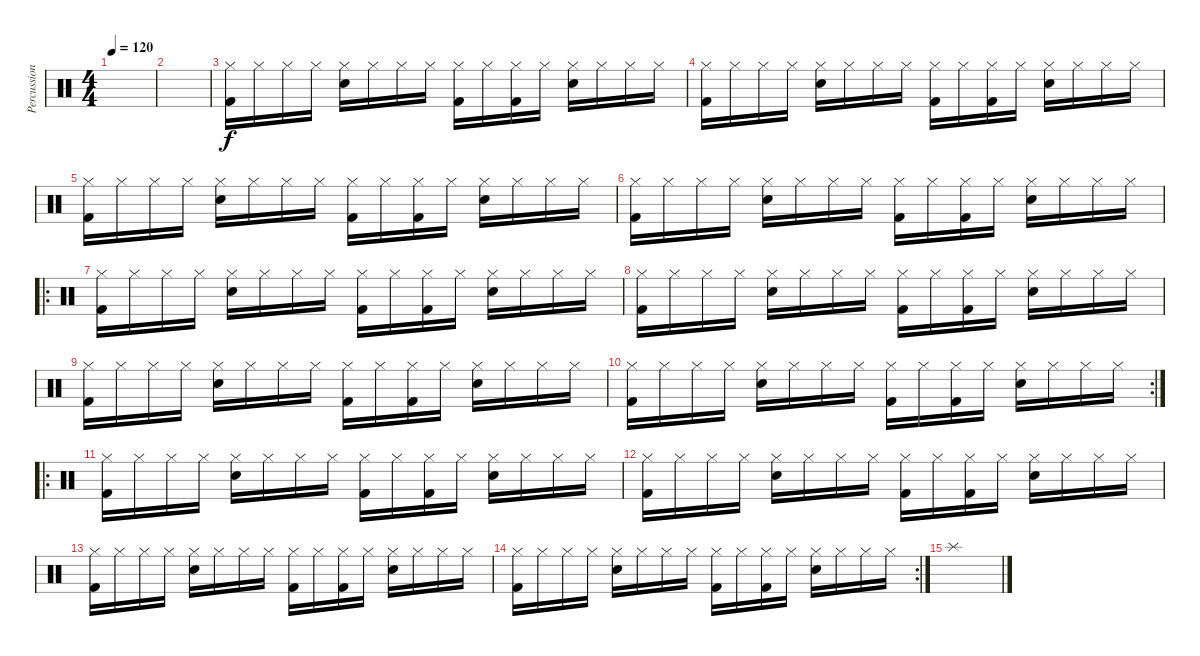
\track ("Percussion" "Percussion") {instrument percussion}
\staff {score}
\articulation defaults
\ts (4 4)
\tempo 120
\clef neutral
\ks c
|
|
("Hi-Hat (closed)" "Kick (hit) 2").16{volume 13} "Hi-Hat (closed)".16 "Hi-Hat (closed)".16 "Hi-Hat (closed)".16 ("Hi-Hat (closed)" "Snare (hit) 2").16 "Hi-Hat (closed)".16 "Hi-Hat (closed)".16 "Hi-Hat (closed)".16 ("Hi-Hat (closed)" "Kick (hit) 2").16 "Hi-Hat (closed)".16 ("Hi-Hat (closed)" "Kick (hit) 2").16 "Hi-Hat (closed)".16 ("Hi-Hat (closed)" "Snare (hit) 2").16 "Hi-Hat (closed)".16 "Hi-Hat (closed)".16 "Hi-Hat (closed)".16 |
("Hi-Hat (closed)" "Kick (hit) 2").16 "Hi-Hat (closed)".16 "Hi-Hat (closed)".16 "Hi-Hat (closed)".16 ("Hi-Hat (closed)" "Snare (hit) 2").16 "Hi-Hat (closed)".16 "Hi-Hat (closed)".16 "Hi-Hat (closed)".16 ("Hi-Hat (closed)" "Kick (hit) 2").16 "Hi-Hat (closed)".16 ("Hi-Hat (closed)" "Kick (hit) 2").16 "Hi-Hat (closed)".16 ("Hi-Hat (closed)" "Snare (hit) 2").16 "Hi-Hat (closed)".16 "Hi-Hat (closed)".16 "Hi-Hat (closed)".16 |
("Hi-Hat (closed)" "Kick (hit) 2").16 "Hi-Hat (closed)".16 "Hi-Hat (closed)".16 "Hi-Hat (closed)".16 ("Hi-Hat (closed)" "Snare (hit) 2").16 "Hi-Hat (closed)".16 "Hi-Hat (closed)".16 "Hi-Hat (closed)".16 ("Hi-Hat (closed)" "Kick (hit) 2").16 "Hi-Hat (closed)".16 ("Hi-Hat (closed)" "Kick (hit) 2").16 "Hi-Hat (closed)".16 ("Hi-Hat (closed)" "Snare (hit) 2").16 "Hi-Hat (closed)".16 "Hi-Hat (closed)".16 "Hi-Hat (closed)".16 |
("Hi-Hat (closed)" "Kick (hit) 2").16 "Hi-Hat (closed)".16 "Hi-Hat (closed)".16 "Hi-Hat (closed)".16 ("Hi-Hat (closed)" "Snare (hit) 2").16 "Hi-Hat (closed)".16 "Hi-Hat (closed)".16 "Hi-Hat (closed)".16 ("Hi-Hat (closed)" "Kick (hit) 2").16 "Hi-Hat (closed)".16 ("Hi-Hat (closed)" "Kick (hit) 2").16 "Hi-Hat (closed)".16 ("Hi-Hat (closed)" "Snare (hit) 2").16 "Hi-Hat (closed)".16 "Hi-Hat (closed)".16 "Hi-Hat (closed)".16 |
\ro
("Hi-Hat (closed)" "Kick (hit) 2").16 "Hi-Hat (closed)".16 "Hi-Hat (closed)".16 "Hi-Hat (closed)".16 ("Hi-Hat (closed)" "Snare (hit) 2").16 "Hi-Hat (closed)".16 "Hi-Hat (closed)".16 "Hi-Hat (closed)".16 ("Hi-Hat (closed)" "Kick (hit) 2").16 "Hi-Hat (closed)".16 ("Hi-Hat (closed)" "Kick (hit) 2").16 "Hi-Hat (closed)".16 ("Hi-Hat (closed)" "Snare (hit) 2").16 "Hi-Hat (closed)".16 "Hi-Hat (closed)".16 "Hi-Hat (closed)".16 |
("Hi-Hat (closed)" "Kick (hit) 2").16 "Hi-Hat (closed)".16 "Hi-Hat (closed)".16 "Hi-Hat (closed)".16 ("Hi-Hat (closed)" "Snare (hit) 2").16 "Hi-Hat (closed)".16 "Hi-Hat (closed)".16 "Hi-Hat (closed)".16 ("Hi-Hat (closed)" "Kick (hit) 2").16 "Hi-Hat (closed)".16 ("Hi-Hat (closed)" "Kick (hit) 2").16 "Hi-Hat (closed)".16 ("Hi-Hat (closed)" "Snare (hit) 2").16 "Hi-Hat (closed)".16 "Hi-Hat (closed)".16 "Hi-Hat (closed)".16 |
("Hi-Hat (closed)" "Kick (hit) 2").16 "Hi-Hat (closed)".16 "Hi-Hat (closed)".16 "Hi-Hat (closed)".16 ("Hi-Hat (closed)" "Snare (hit) 2").16 "Hi-Hat (closed)".16 "Hi-Hat (closed)".16 "Hi-Hat (closed)".16 ("Hi-Hat (closed)" "Kick (hit) 2").16 "Hi-Hat (closed)".16 ("Hi-Hat (closed)" "Kick (hit) 2").16 "Hi-Hat (closed)".16 ("Hi-Hat (closed)" "Snare (hit) 2").16 "Hi-Hat (closed)".16 "Hi-Hat (closed)".16 "Hi-Hat (closed)".16 |
\rc 2
("Hi-Hat (closed)" "Kick (hit) 2").16 "Hi-Hat (closed)".16 "Hi-Hat (closed)".16 "Hi-Hat (closed)".16 ("Hi-Hat (closed)" "Snare (hit) 2").16 "Hi-Hat (closed)".16 "Hi-Hat (closed)".16 "Hi-Hat (closed)".16 ("Hi-Hat (closed)" "Kick (hit) 2").16 "Hi-Hat (closed)".16 ("Hi-Hat (closed)" "Kick (hit) 2").16 "Hi-Hat (closed)".16 ("Hi-Hat (closed)" "Snare (hit) 2").16 "Hi-Hat (closed)".16 "Hi-Hat (closed)".16 "Hi-Hat (closed)".16 |
\ro
("Hi-Hat (closed)" "Kick (hit) 2").16 "Hi-Hat (closed)".16 "Hi-Hat (closed)".16 "Hi-Hat (closed)".16 ("Hi-Hat (closed)" "Snare (hit) 2").16 "Hi-Hat (closed)".16 "Hi-Hat (closed)".16 "Hi-Hat (closed)".16 ("Hi-Hat (closed)" "Kick (hit) 2").16 "Hi-Hat (closed)".16 ("Hi-Hat (closed)" "Kick (hit) 2").16 "Hi-Hat (closed)".16 ("Hi-Hat (closed)" "Snare (hit) 2").16 "Hi-Hat (closed)".16 "Hi-Hat (closed)".16 "Hi-Hat (closed)".16 |
("Hi-Hat (closed)" "Kick (hit) 2").16 "Hi-Hat (closed)".16 "Hi-Hat (closed)".16 "Hi-Hat (closed)".16 ("Hi-Hat (closed)" "Snare (hit) 2").16 "Hi-Hat (closed)".16 "Hi-Hat (closed)".16 "Hi-Hat (closed)".16 ("Hi-Hat (closed)" "Kick (hit) 2").16 "Hi-Hat (closed)".16 ("Hi-Hat (closed)" "Kick (hit) 2").16 "Hi-Hat (closed)".16 ("Hi-Hat (closed)" "Snare (hit) 2").16 "Hi-Hat (closed)".16 "Hi-Hat (closed)".16 "Hi-Hat (closed)".16 |
("Hi-Hat (closed)" "Kick (hit) 2").16 "Hi-Hat (closed)".16 "Hi-Hat (closed)".16 "Hi-Hat (closed)".16 ("Hi-Hat (closed)" "Snare (hit) 2").16 "Hi-Hat (closed)".16 "Hi-Hat (closed)".16 "Hi-Hat (closed)".16 ("Hi-Hat (closed)" "Kick (hit) 2").16 "Hi-Hat (closed)".16 ("Hi-Hat (closed)" "Kick (hit) 2").16 "Hi-Hat (closed)".16 ("Hi-Hat (closed)" "Snare (hit) 2").16 "Hi-Hat (closed)".16 "Hi-Hat (closed)".16 "Hi-Hat (closed)".16 |
\rc 2
("Hi-Hat (closed)" "Kick (hit) 2").16 "Hi-Hat (closed)".16 "Hi-Hat (closed)".16 "Hi-Hat (closed)".16 ("Hi-Hat (closed)" "Snare (hit) 2").16 "Hi-Hat (closed)".16 "Hi-Hat (closed)".16 "Hi-Hat (closed)".16 ("Hi-Hat (closed)" "Kick (hit) 2").16 "Hi-Hat (closed)".16 ("Hi-Hat (closed)" "Kick (hit) 2").16 "Hi-Hat (closed)".16 ("Hi-Hat (closed)" "Snare (hit) 2").16 "Hi-Hat (closed)".16 "Hi-Hat (closed)".16 "Hi-Hat (closed)".16 |
"Splash (hit)".1
